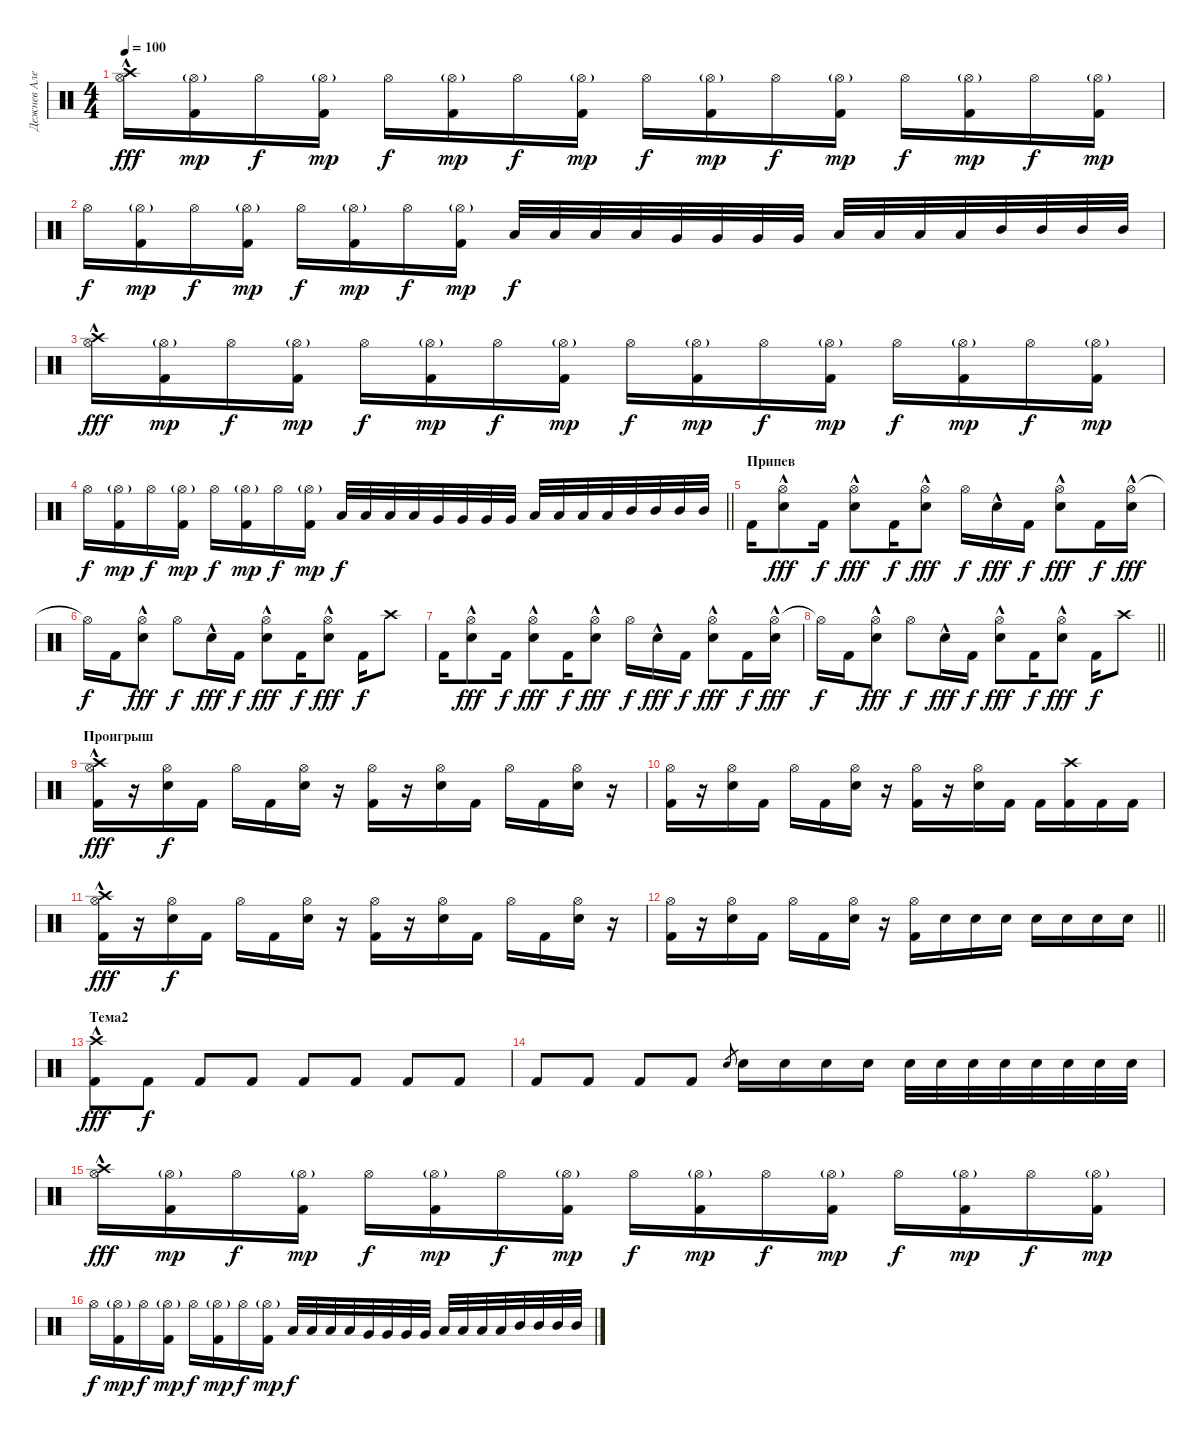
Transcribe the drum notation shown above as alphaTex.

\track ("Дежнев Алексей - аккустические барабаны" "Дежнев Але") {instrument percussion}
\staff {score}
\articulation defaults
\ts (4 4)
\tempo 100
\clef neutral
\ks c
("Hi-Hat (open)" "Crash high (hit)"{hac}).16{dy fff} ("Hi-Hat (open)"{g} "Kick (hit) 2").16{dy mp} "Hi-Hat (open)".16{dy f} ("Hi-Hat (open)"{g} "Kick (hit) 2").16{dy mp} "Hi-Hat (open)".16{dy f} ("Hi-Hat (open)"{g} "Kick (hit) 2").16{dy mp} "Hi-Hat (open)".16{dy f} ("Hi-Hat (open)"{g} "Kick (hit) 2").16{dy mp} "Hi-Hat (open)".16{dy f} ("Hi-Hat (open)"{g} "Kick (hit) 2").16{dy mp} "Hi-Hat (open)".16{dy f} ("Hi-Hat (open)"{g} "Kick (hit) 2").16{dy mp} "Hi-Hat (open)".16{dy f} ("Hi-Hat (open)"{g} "Kick (hit) 2").16{dy mp} "Hi-Hat (open)".16{dy f} ("Hi-Hat (open)"{g} "Kick (hit) 2").16{dy mp} |
"Hi-Hat (open)".16{dy f} ("Hi-Hat (open)"{g} "Kick (hit) 2").16{dy mp} "Hi-Hat (open)".16{dy f} ("Hi-Hat (open)"{g} "Kick (hit) 2").16{dy mp} "Hi-Hat (open)".16{dy f} ("Hi-Hat (open)"{g} "Kick (hit) 2").16{dy mp} "Hi-Hat (open)".16{dy f} ("Hi-Hat (open)"{g} "Kick (hit) 2").16{dy mp} "Low Floor Tom (hit)".32{dy f} "Low Floor Tom (hit)".32 "Low Floor Tom (hit)".32 "Low Floor Tom (hit)".32 "Very Low Tom (hit)".32 "Very Low Tom (hit)".32 "Very Low Tom (hit)".32 "Very Low Tom (hit)".32 "Low Tom (hit)".32 "Low Tom (hit)".32 "Low Tom (hit)".32 "Low Tom (hit)".32 "Mid Tom (hit)".32 "Mid Tom (hit)".32 "Mid Tom (hit)".32 "Mid Tom (hit)".32 |
("Hi-Hat (open)" "Crash high (hit)"{hac}).16{dy fff} ("Hi-Hat (open)"{g} "Kick (hit) 2").16{dy mp} "Hi-Hat (open)".16{dy f} ("Hi-Hat (open)"{g} "Kick (hit) 2").16{dy mp} "Hi-Hat (open)".16{dy f} ("Hi-Hat (open)"{g} "Kick (hit) 2").16{dy mp} "Hi-Hat (open)".16{dy f} ("Hi-Hat (open)"{g} "Kick (hit) 2").16{dy mp} "Hi-Hat (open)".16{dy f} ("Hi-Hat (open)"{g} "Kick (hit) 2").16{dy mp} "Hi-Hat (open)".16{dy f} ("Hi-Hat (open)"{g} "Kick (hit) 2").16{dy mp} "Hi-Hat (open)".16{dy f} ("Hi-Hat (open)"{g} "Kick (hit) 2").16{dy mp} "Hi-Hat (open)".16{dy f} ("Hi-Hat (open)"{g} "Kick (hit) 2").16{dy mp} |
\barLineRight lightlight "Hi-Hat (open)".16{dy f}
("Hi-Hat (open)"{g} "Kick (hit) 2").16{dy mp} "Hi-Hat (open)".16{dy f} ("Hi-Hat (open)"{g} "Kick (hit) 2").16{dy mp} "Hi-Hat (open)".16{dy f} ("Hi-Hat (open)"{g} "Kick (hit) 2").16{dy mp} "Hi-Hat (open)".16{dy f} ("Hi-Hat (open)"{g} "Kick (hit) 2").16{dy mp} "Low Floor Tom (hit)".32{dy f} "Low Floor Tom (hit)".32 "Low Floor Tom (hit)".32 "Low Floor Tom (hit)".32 "Very Low Tom (hit)".32 "Very Low Tom (hit)".32 "Very Low Tom (hit)".32 "Very Low Tom (hit)".32 "Low Tom (hit)".32 "Low Tom (hit)".32 "Low Tom (hit)".32 "Low Tom (hit)".32 "Mid Tom (hit)".32 "Mid Tom (hit)".32 "Mid Tom (hit)".32 "Mid Tom (hit)".32 |
\section ("" "Припев")
"Kick (hit) 2".16 ("Hi-Hat (open)" "Snare (hit) 2"{hac}).8{dy fff} "Kick (hit) 2".16{dy f} ("Hi-Hat (open)" "Snare (hit) 2"{hac}).8{dy fff} "Kick (hit) 2".16{dy f} ("Hi-Hat (open)" "Snare (hit) 2"{hac}).8{dy fff} "Hi-Hat (open)".16{dy f} "Snare (hit) 2"{hac}.16{dy fff} "Kick (hit) 2".16{dy f} ("Hi-Hat (open)" "Snare (hit) 2"{hac}).8{dy fff} "Kick (hit) 2".16{dy f} ("Hi-Hat (open)" "Snare (hit) 2"{hac}).16{dy fff} |
"Hi-Hat (open)"{t}.16{dy f} "Kick (hit) 2".16 ("Hi-Hat (open)" "Snare (hit) 2"{hac}).8{dy fff} "Hi-Hat (open)".8{dy f} "Snare (hit) 2"{hac}.16{dy fff} "Kick (hit) 2".16{dy f} ("Hi-Hat (open)" "Snare (hit) 2"{hac}).8{dy fff} "Kick (hit) 2".16{dy f} ("Hi-Hat (open)" "Snare (hit) 2"{hac}).8{dy fff} "Kick (hit) 2".16{dy f} "Crash high (hit)".8 |
"Kick (hit) 2".16 ("Hi-Hat (open)" "Snare (hit) 2"{hac}).8{dy fff} "Kick (hit) 2".16{dy f} ("Hi-Hat (open)" "Snare (hit) 2"{hac}).8{dy fff} "Kick (hit) 2".16{dy f} ("Hi-Hat (open)" "Snare (hit) 2"{hac}).8{dy fff} "Hi-Hat (open)".16{dy f} "Snare (hit) 2"{hac}.16{dy fff} "Kick (hit) 2".16{dy f} ("Hi-Hat (open)" "Snare (hit) 2"{hac}).8{dy fff} "Kick (hit) 2".16{dy f} ("Hi-Hat (open)" "Snare (hit) 2"{hac}).16{dy fff} |
\barLineRight lightlight "Hi-Hat (open)"{t}.16{dy f} "Kick (hit) 2".16
("Hi-Hat (open)" "Snare (hit) 2"{hac}).8{dy fff} "Hi-Hat (open)".8{dy f} "Snare (hit) 2"{hac}.16{dy fff} "Kick (hit) 2".16{dy f} ("Hi-Hat (open)" "Snare (hit) 2"{hac}).8{dy fff} "Kick (hit) 2".16{dy f} ("Hi-Hat (open)" "Snare (hit) 2"{hac}).8{dy fff} "Kick (hit) 2".16{dy f} "Crash high (hit)".8 |
\section ("" "Проигрыш")
("Hi-Hat (open)" "Crash high (hit)"{hac} "Kick (hit) 2").16{dy fff} r.16 ("Hi-Hat (open)" "Snare (hit) 2").16{dy f} "Kick (hit) 2".16 "Hi-Hat (open)".16 "Kick (hit) 2".16 ("Hi-Hat (open)" "Snare (hit) 2").16 r.16 ("Hi-Hat (open)" "Kick (hit) 2").16 r.16 ("Hi-Hat (open)" "Snare (hit) 2").16 "Kick (hit) 2".16 "Hi-Hat (open)".16 "Kick (hit) 2".16 ("Hi-Hat (open)" "Snare (hit) 2").16 r.16 |
("Hi-Hat (open)" "Kick (hit) 2").16 r.16 ("Hi-Hat (open)" "Snare (hit) 2").16 "Kick (hit) 2".16 "Hi-Hat (open)".16 "Kick (hit) 2".16 ("Hi-Hat (open)" "Snare (hit) 2").16 r.16 ("Hi-Hat (open)" "Kick (hit) 2").16 r.16 ("Hi-Hat (open)" "Snare (hit) 2").16 "Kick (hit) 2".16 "Kick (hit) 2".16 ("Crash high (hit)" "Kick (hit) 2").16 "Kick (hit) 2".16 "Kick (hit) 2".16 |
("Hi-Hat (open)" "Crash high (hit)"{hac} "Kick (hit) 2").16{dy fff} r.16 ("Hi-Hat (open)" "Snare (hit) 2").16{dy f} "Kick (hit) 2".16 "Hi-Hat (open)".16 "Kick (hit) 2".16 ("Hi-Hat (open)" "Snare (hit) 2").16 r.16 ("Hi-Hat (open)" "Kick (hit) 2").16 r.16 ("Hi-Hat (open)" "Snare (hit) 2").16 "Kick (hit) 2".16 "Hi-Hat (open)".16 "Kick (hit) 2".16 ("Hi-Hat (open)" "Snare (hit) 2").16 r.16 |
\barLineRight lightlight
("Hi-Hat (open)" "Kick (hit) 2").16 r.16 ("Hi-Hat (open)" "Snare (hit) 2").16 "Kick (hit) 2".16 "Hi-Hat (open)".16 "Kick (hit) 2".16 ("Hi-Hat (open)" "Snare (hit) 2").16 r.16 ("Hi-Hat (open)" "Kick (hit) 2").16 "Snare (hit) 2".16 "Snare (hit) 2".16 "Snare (hit) 2".16 "Snare (hit) 2".16 "Snare (hit) 2".16 "Snare (hit) 2".16 "Snare (hit) 2".16 |
\section ("" "Тема2")
("Crash high (hit)"{hac} "Kick (hit) 2").8{dy fff} "Kick (hit) 2".8{dy f} "Kick (hit) 2".8 "Kick (hit) 2".8 "Kick (hit) 2".8 "Kick (hit) 2".8 "Kick (hit) 2".8 "Kick (hit) 2".8 |
"Kick (hit) 2".8 "Kick (hit) 2".8 "Kick (hit) 2".8 "Kick (hit) 2".8 "Snare (hit) 2".8{gr} "Snare (hit) 2".16 "Snare (hit) 2".16 "Snare (hit) 2".16 "Snare (hit) 2".16 "Snare (hit) 2".32 "Snare (hit) 2".32 "Snare (hit) 2".32 "Snare (hit) 2".32 "Snare (hit) 2".32 "Snare (hit) 2".32 "Snare (hit) 2".32 "Snare (hit) 2".32 |
("Hi-Hat (open)" "Crash high (hit)"{hac}).16{dy fff} ("Hi-Hat (open)"{g} "Kick (hit) 2").16{dy mp} "Hi-Hat (open)".16{dy f} ("Hi-Hat (open)"{g} "Kick (hit) 2").16{dy mp} "Hi-Hat (open)".16{dy f} ("Hi-Hat (open)"{g} "Kick (hit) 2").16{dy mp} "Hi-Hat (open)".16{dy f} ("Hi-Hat (open)"{g} "Kick (hit) 2").16{dy mp} "Hi-Hat (open)".16{dy f} ("Hi-Hat (open)"{g} "Kick (hit) 2").16{dy mp} "Hi-Hat (open)".16{dy f} ("Hi-Hat (open)"{g} "Kick (hit) 2").16{dy mp} "Hi-Hat (open)".16{dy f} ("Hi-Hat (open)"{g} "Kick (hit) 2").16{dy mp} "Hi-Hat (open)".16{dy f} ("Hi-Hat (open)"{g} "Kick (hit) 2").16{dy mp} |
"Hi-Hat (open)".16{dy f} ("Hi-Hat (open)"{g} "Kick (hit) 2").16{dy mp} "Hi-Hat (open)".16{dy f} ("Hi-Hat (open)"{g} "Kick (hit) 2").16{dy mp} "Hi-Hat (open)".16{dy f} ("Hi-Hat (open)"{g} "Kick (hit) 2").16{dy mp} "Hi-Hat (open)".16{dy f} ("Hi-Hat (open)"{g} "Kick (hit) 2").16{dy mp} "Low Floor Tom (hit)".32{dy f} "Low Floor Tom (hit)".32 "Low Floor Tom (hit)".32 "Low Floor Tom (hit)".32 "Very Low Tom (hit)".32 "Very Low Tom (hit)".32 "Very Low Tom (hit)".32 "Very Low Tom (hit)".32 "Low Tom (hit)".32 "Low Tom (hit)".32 "Low Tom (hit)".32 "Low Tom (hit)".32 "Mid Tom (hit)".32 "Mid Tom (hit)".32 "Mid Tom (hit)".32 "Mid Tom (hit)".32
